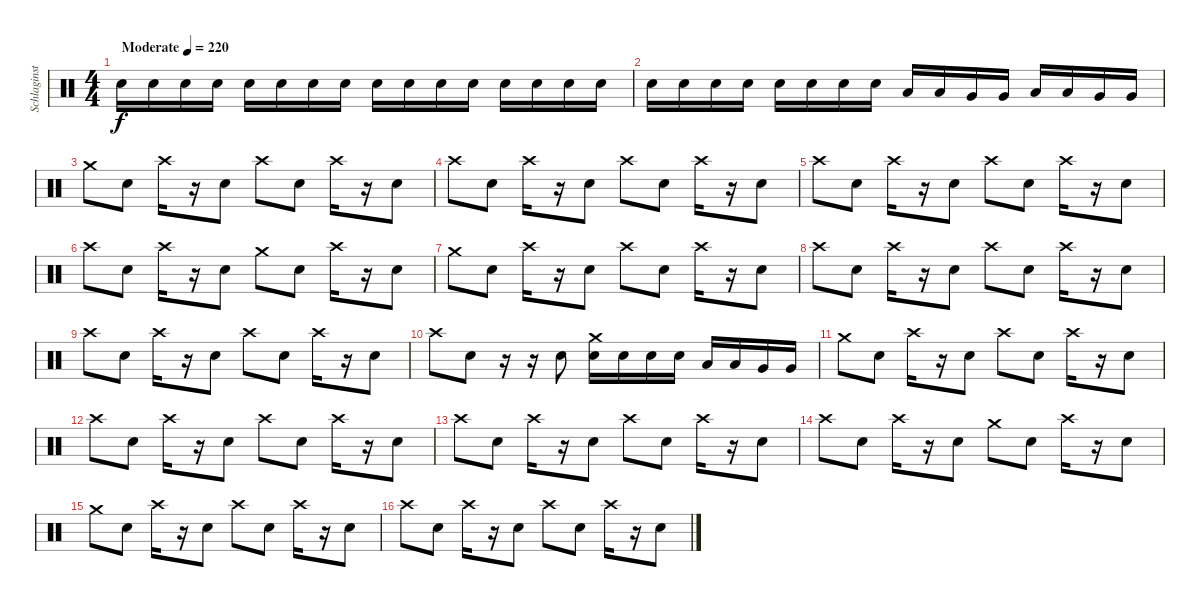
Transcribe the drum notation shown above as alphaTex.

\track ("Schlaginstrumente - Auswahl" "Schlaginst") {instrument percussion}
\staff {score}
\articulation defaults
\ts (4 4)
\tempo (220 "Moderate")
\clef neutral
\ks c "Electric Snare (hit)".16{dy f} "Electric Snare (hit)".16 "Electric Snare (hit)".16 "Electric Snare (hit)".16 "Electric Snare (hit)".16 "Electric Snare (hit)".16 "Electric Snare (hit)".16 "Electric Snare (hit)".16 "Electric Snare (hit)".16 "Electric Snare (hit)".16 "Electric Snare (hit)".16 "Electric Snare (hit)".16 "Electric Snare (hit)".16 "Electric Snare (hit)".16 "Electric Snare (hit)".16 "Electric Snare (hit)".16
|
"Electric Snare (hit)".16 "Electric Snare (hit)".16 "Electric Snare (hit)".16 "Electric Snare (hit)".16 "Electric Snare (hit)".16 "Electric Snare (hit)".16 "Electric Snare (hit)".16 "Electric Snare (hit)".16 "Low Tom (hit)".16 "Low Tom (hit)".16 "Very Low Tom (hit)".16 "Very Low Tom (hit)".16 "Low Tom (hit)".16 "Low Tom (hit)".16 "Very Low Tom (hit)".16 "Very Low Tom (hit)".16 |
"Crash medium (hit)".8 "Electric Snare (hit)".8 "Crash high (hit)".16 r.16 "Electric Snare (hit)".8 "Crash high (hit)".8 "Electric Snare (hit)".8 "Crash high (hit)".16 r.16 "Electric Snare (hit)".8 |
"Crash high (hit)".8 "Electric Snare (hit)".8 "Crash high (hit)".16 r.16 "Electric Snare (hit)".8 "Crash high (hit)".8 "Electric Snare (hit)".8 "Crash high (hit)".16 r.16 "Electric Snare (hit)".8 |
"Crash high (hit)".8 "Electric Snare (hit)".8 "Crash high (hit)".16 r.16 "Electric Snare (hit)".8 "Crash high (hit)".8 "Electric Snare (hit)".8 "Crash high (hit)".16 r.16 "Electric Snare (hit)".8 |
"Crash high (hit)".8 "Electric Snare (hit)".8 "Crash high (hit)".16 r.16 "Electric Snare (hit)".8 "Crash medium (hit)".8 "Electric Snare (hit)".8 "Crash high (hit)".16 r.16 "Electric Snare (hit)".8 |
"Crash medium (hit)".8 "Electric Snare (hit)".8 "Crash high (hit)".16 r.16 "Electric Snare (hit)".8 "Crash high (hit)".8 "Electric Snare (hit)".8 "Crash high (hit)".16 r.16 "Electric Snare (hit)".8 |
"Crash high (hit)".8 "Electric Snare (hit)".8 "Crash high (hit)".16 r.16 "Electric Snare (hit)".8 "Crash high (hit)".8 "Electric Snare (hit)".8 "Crash high (hit)".16 r.16 "Electric Snare (hit)".8 |
"Crash high (hit)".8 "Electric Snare (hit)".8 "Crash high (hit)".16 r.16 "Electric Snare (hit)".8 "Crash high (hit)".8 "Electric Snare (hit)".8 "Crash high (hit)".16 r.16 "Electric Snare (hit)".8 |
"Crash high (hit)".8 "Electric Snare (hit)".8 r.16 r.16 "Electric Snare (hit)".8 ("Crash medium (hit)" "Electric Snare (hit)").16 "Electric Snare (hit)".16 "Electric Snare (hit)".16 "Electric Snare (hit)".16 "Low Tom (hit)".16 "Low Tom (hit)".16 "Very Low Tom (hit)".16 "Very Low Tom (hit)".16 |
"Crash medium (hit)".8 "Electric Snare (hit)".8 "Crash high (hit)".16 r.16 "Electric Snare (hit)".8 "Crash high (hit)".8 "Electric Snare (hit)".8 "Crash high (hit)".16 r.16 "Electric Snare (hit)".8 |
"Crash high (hit)".8 "Electric Snare (hit)".8 "Crash high (hit)".16 r.16 "Electric Snare (hit)".8 "Crash high (hit)".8 "Electric Snare (hit)".8 "Crash high (hit)".16 r.16 "Electric Snare (hit)".8 |
"Crash high (hit)".8 "Electric Snare (hit)".8 "Crash high (hit)".16 r.16 "Electric Snare (hit)".8 "Crash high (hit)".8 "Electric Snare (hit)".8 "Crash high (hit)".16 r.16 "Electric Snare (hit)".8 |
"Crash high (hit)".8 "Electric Snare (hit)".8 "Crash high (hit)".16 r.16 "Electric Snare (hit)".8 "Crash medium (hit)".8 "Electric Snare (hit)".8 "Crash high (hit)".16 r.16 "Electric Snare (hit)".8 |
"Crash medium (hit)".8 "Electric Snare (hit)".8 "Crash high (hit)".16 r.16 "Electric Snare (hit)".8 "Crash high (hit)".8 "Electric Snare (hit)".8 "Crash high (hit)".16 r.16 "Electric Snare (hit)".8 |
"Crash high (hit)".8 "Electric Snare (hit)".8 "Crash high (hit)".16 r.16 "Electric Snare (hit)".8 "Crash high (hit)".8 "Electric Snare (hit)".8 "Crash high (hit)".16 r.16 "Electric Snare (hit)".8
